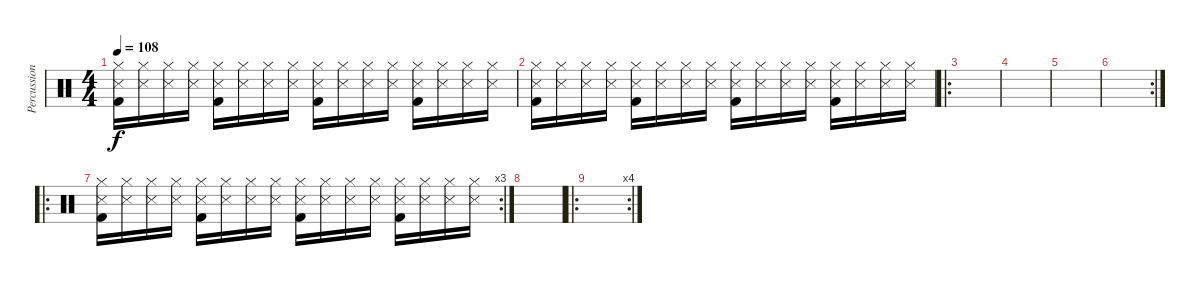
\track ("Percussions" "Percussion") {instrument percussion}
\staff {score}
\articulation defaults
\ts (4 4)
\tempo 108
\clef neutral
\ks c
("Kick (hit) 2" "Hi-Hat (closed)" "Snare (side stick) 3").16{dy f} ("Hi-Hat (closed)" "Snare (side stick) 3").16 ("Hi-Hat (closed)" "Snare (side stick) 3").16 ("Hi-Hat (closed)" "Snare (side stick) 3").16 ("Kick (hit) 2" "Hi-Hat (closed)" "Snare (side stick) 3").16 ("Hi-Hat (closed)" "Snare (side stick) 3").16 ("Hi-Hat (closed)" "Snare (side stick) 3").16 ("Hi-Hat (closed)" "Snare (side stick) 3").16 ("Kick (hit) 2" "Hi-Hat (closed)" "Snare (side stick) 3").16 ("Hi-Hat (closed)" "Snare (side stick) 3").16 ("Hi-Hat (closed)" "Snare (side stick) 3").16 ("Hi-Hat (closed)" "Snare (side stick) 3").16 ("Kick (hit) 2" "Hi-Hat (closed)" "Snare (side stick) 3").16 ("Hi-Hat (closed)" "Snare (side stick) 3").16 ("Hi-Hat (closed)" "Snare (side stick) 3").16 ("Hi-Hat (closed)" "Snare (side stick) 3").16 |
("Kick (hit) 2" "Hi-Hat (closed)" "Snare (side stick) 3").16 ("Hi-Hat (closed)" "Snare (side stick) 3").16 ("Hi-Hat (closed)" "Snare (side stick) 3").16 ("Hi-Hat (closed)" "Snare (side stick) 3").16 ("Kick (hit) 2" "Hi-Hat (closed)" "Snare (side stick) 3").16 ("Hi-Hat (closed)" "Snare (side stick) 3").16 ("Hi-Hat (closed)" "Snare (side stick) 3").16 ("Hi-Hat (closed)" "Snare (side stick) 3").16 ("Kick (hit) 2" "Hi-Hat (closed)" "Snare (side stick) 3").16 ("Hi-Hat (closed)" "Snare (side stick) 3").16 ("Hi-Hat (closed)" "Snare (side stick) 3").16 ("Hi-Hat (closed)" "Snare (side stick) 3").16 ("Kick (hit) 2" "Hi-Hat (closed)" "Snare (side stick) 3").16 ("Hi-Hat (closed)" "Snare (side stick) 3").16 ("Hi-Hat (closed)" "Snare (side stick) 3").16 ("Hi-Hat (closed)" "Snare (side stick) 3").16 |
\ro
|
|
|
\rc 2
|
\ro
\rc 3
("Kick (hit) 2" "Hi-Hat (closed)" "Snare (side stick) 3").16 ("Hi-Hat (closed)" "Snare (side stick) 3").16 ("Hi-Hat (closed)" "Snare (side stick) 3").16 ("Hi-Hat (closed)" "Snare (side stick) 3").16 ("Kick (hit) 2" "Hi-Hat (closed)" "Snare (side stick) 3").16 ("Hi-Hat (closed)" "Snare (side stick) 3").16 ("Hi-Hat (closed)" "Snare (side stick) 3").16 ("Hi-Hat (closed)" "Snare (side stick) 3").16 ("Kick (hit) 2" "Hi-Hat (closed)" "Snare (side stick) 3").16 ("Hi-Hat (closed)" "Snare (side stick) 3").16 ("Hi-Hat (closed)" "Snare (side stick) 3").16 ("Hi-Hat (closed)" "Snare (side stick) 3").16 ("Kick (hit) 2" "Hi-Hat (closed)" "Snare (side stick) 3").16 ("Hi-Hat (closed)" "Snare (side stick) 3").16 ("Hi-Hat (closed)" "Snare (side stick) 3").16 ("Hi-Hat (closed)" "Snare (side stick) 3").16 |
|
\ro
\rc 4
